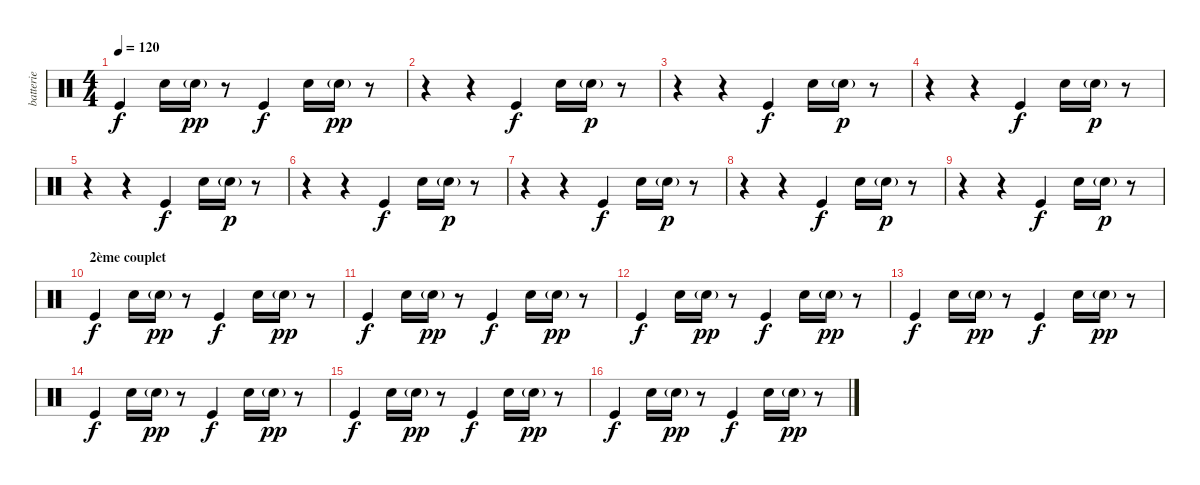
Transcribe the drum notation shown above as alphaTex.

\track ("batterie" "batterie") {instrument percussion}
\staff {score}
\articulation defaults
\ts (4 4)
\tempo 120
\clef neutral
\ks c "Kick (hit)".4{dy f} "Electric Snare (hit)".16 "Electric Snare (hit)"{g}.16{dy pp}
r.8 "Kick (hit)".4{dy f} "Electric Snare (hit)".16 "Electric Snare (hit)"{g}.16{dy pp} r.8 |
r.4 r.4 "Kick (hit)".4{dy f} "Electric Snare (hit)".16 "Electric Snare (hit)"{g}.16{dy p} r.8 |
r.4 r.4 "Kick (hit)".4{dy f} "Electric Snare (hit)".16 "Electric Snare (hit)"{g}.16{dy p} r.8 |
r.4 r.4 "Kick (hit)".4{dy f} "Electric Snare (hit)".16 "Electric Snare (hit)"{g}.16{dy p} r.8 |
r.4 r.4 "Kick (hit)".4{dy f} "Electric Snare (hit)".16 "Electric Snare (hit)"{g}.16{dy p} r.8 |
r.4 r.4 "Kick (hit)".4{dy f} "Electric Snare (hit)".16 "Electric Snare (hit)"{g}.16{dy p} r.8 |
r.4 r.4 "Kick (hit)".4{dy f} "Electric Snare (hit)".16 "Electric Snare (hit)"{g}.16{dy p} r.8 |
r.4 r.4 "Kick (hit)".4{dy f} "Electric Snare (hit)".16 "Electric Snare (hit)"{g}.16{dy p} r.8 |
r.4 r.4 "Kick (hit)".4{dy f} "Electric Snare (hit)".16 "Electric Snare (hit)"{g}.16{dy p} r.8 |
\section ("" "2ème couplet")
"Kick (hit)".4{dy f} "Electric Snare (hit)".16 "Electric Snare (hit)"{g}.16{dy pp} r.8 "Kick (hit)".4{dy f} "Electric Snare (hit)".16 "Electric Snare (hit)"{g}.16{dy pp} r.8 |
"Kick (hit)".4{dy f} "Electric Snare (hit)".16 "Electric Snare (hit)"{g}.16{dy pp} r.8 "Kick (hit)".4{dy f} "Electric Snare (hit)".16 "Electric Snare (hit)"{g}.16{dy pp} r.8 |
"Kick (hit)".4{dy f} "Electric Snare (hit)".16 "Electric Snare (hit)"{g}.16{dy pp} r.8 "Kick (hit)".4{dy f} "Electric Snare (hit)".16 "Electric Snare (hit)"{g}.16{dy pp} r.8 |
"Kick (hit)".4{dy f} "Electric Snare (hit)".16 "Electric Snare (hit)"{g}.16{dy pp} r.8 "Kick (hit)".4{dy f} "Electric Snare (hit)".16 "Electric Snare (hit)"{g}.16{dy pp} r.8 |
"Kick (hit)".4{dy f} "Electric Snare (hit)".16 "Electric Snare (hit)"{g}.16{dy pp} r.8 "Kick (hit)".4{dy f} "Electric Snare (hit)".16 "Electric Snare (hit)"{g}.16{dy pp} r.8 |
"Kick (hit)".4{dy f} "Electric Snare (hit)".16 "Electric Snare (hit)"{g}.16{dy pp} r.8 "Kick (hit)".4{dy f} "Electric Snare (hit)".16 "Electric Snare (hit)"{g}.16{dy pp} r.8 |
"Kick (hit)".4{dy f} "Electric Snare (hit)".16 "Electric Snare (hit)"{g}.16{dy pp} r.8 "Kick (hit)".4{dy f} "Electric Snare (hit)".16 "Electric Snare (hit)"{g}.16{dy pp} r.8
